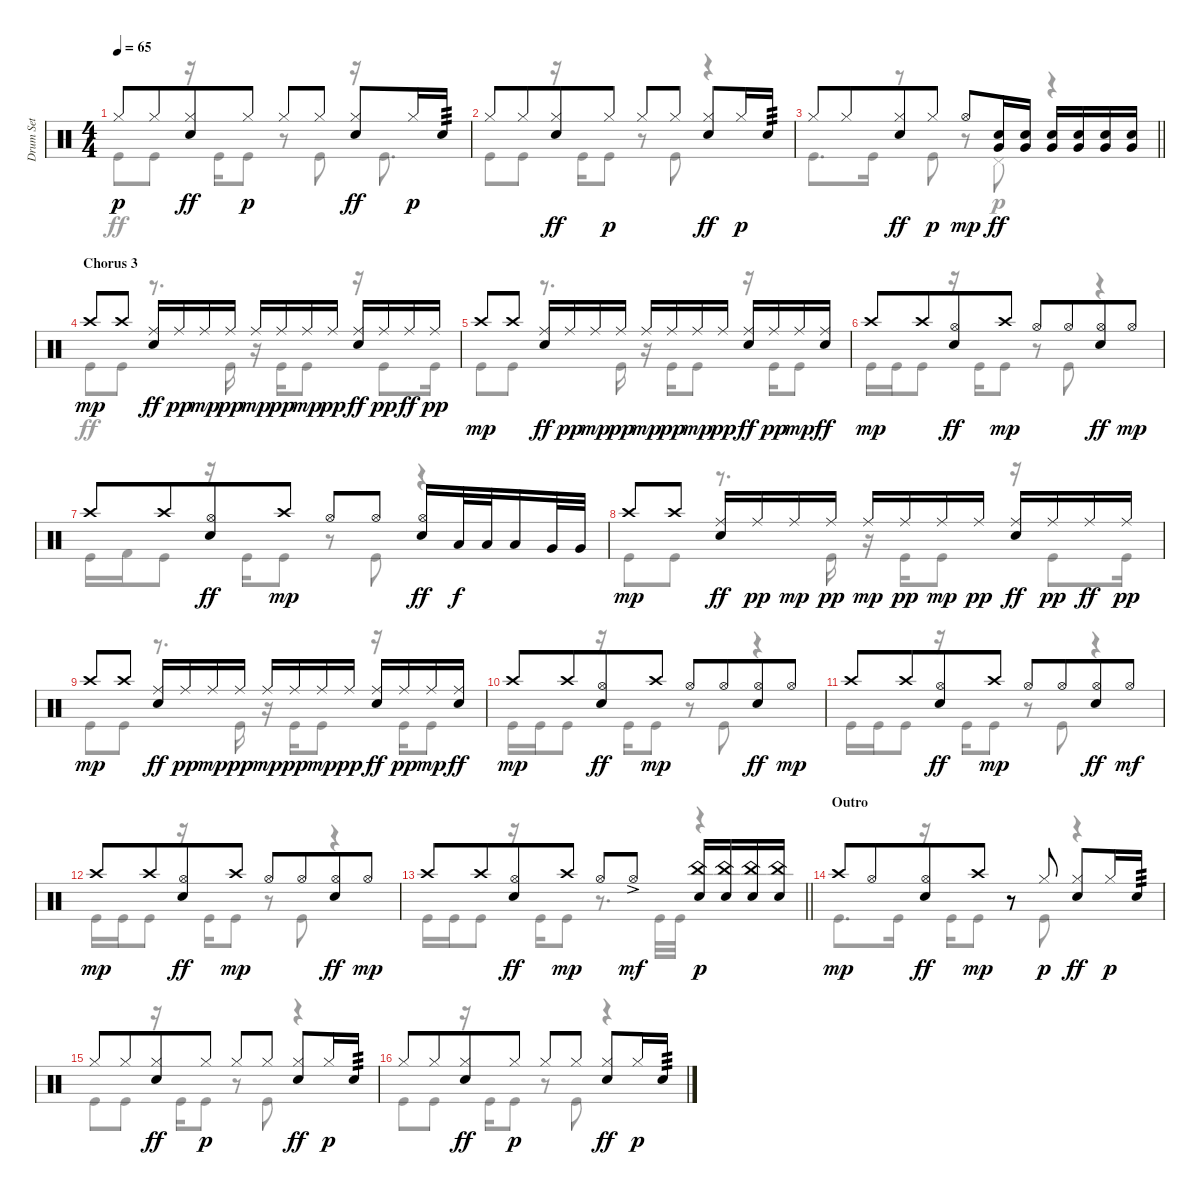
\track ("Drum Set" "Drum Set") {instrument percussion}
\staff {score}
\articulation defaults
\voice
\ts (4 4)
\tempo 65
\clef neutral
\ks c "Hi-Hat (closed)".8{dy p} "Hi-Hat (closed)".8{beam merge}
("Hi-Hat (closed)" "Electric Snare (hit)").8{dy ff} "Hi-Hat (closed)".8{dy p} "Hi-Hat (closed)".8 "Hi-Hat (closed)".8{beam split} ("Hi-Hat (closed)" "Electric Snare (hit)").8{dy ff} "Hi-Hat (closed)".16{dy p} "Electric Snare (hit)".16{tp 3} |
"Hi-Hat (closed)".8 "Hi-Hat (closed)".8{beam merge} ("Hi-Hat (closed)" "Electric Snare (hit)").8{dy ff} "Hi-Hat (closed)".8{dy p} "Hi-Hat (closed)".8 "Hi-Hat (closed)".8{beam split} ("Hi-Hat (closed)" "Electric Snare (hit)").8{dy ff} "Hi-Hat (closed)".16{dy p} "Electric Snare (hit)".16{tp 3} |
\barLineRight lightlight "Hi-Hat (closed)".8 "Hi-Hat (closed)".8{beam merge}
("Hi-Hat (closed)" "Electric Snare (hit)").8{dy ff} "Hi-Hat (closed)".8{dy p} "Hi-Hat (open)".8{dy mp} ("Electric Snare (hit)" "Very Low Tom (hit)").16{dy ff} ("Electric Snare (hit)" "Very Low Tom (hit)").16 ("Electric Snare (hit)" "Very Low Tom (hit)").16 ("Electric Snare (hit)" "Very Low Tom (hit)").16 ("Electric Snare (hit)" "Very Low Tom (hit)").16 ("Electric Snare (hit)" "Very Low Tom (hit)").16 |
\section ("" "Chorus 3")
"Crash high (hit)".8{dy mp} "Crash high (hit)".8 ("Ride (middle)" "Electric Snare (hit)").16{dy ff} "Ride (middle)".16{dy pp} "Ride (middle)".16{dy mp} "Ride (middle)".16{dy pp} "Ride (middle)".16{dy mp} "Ride (middle)".16{dy pp} "Ride (middle)".16{dy mp} "Ride (middle)".16{dy pp} ("Ride (middle)" "Electric Snare (hit)").16{dy ff} "Ride (middle)".16{dy pp} "Ride (middle)".16{dy ff} "Ride (middle)".16{dy pp} |
"Crash high (hit)".8{dy mp} "Crash high (hit)".8 ("Ride (middle)" "Electric Snare (hit)").16{dy ff} "Ride (middle)".16{dy pp} "Ride (middle)".16{dy mp} "Ride (middle)".16{dy pp} "Ride (middle)".16{dy mp} "Ride (middle)".16{dy pp} "Ride (middle)".16{dy mp} "Ride (middle)".16{dy pp} ("Ride (middle)" "Electric Snare (hit)").16{dy ff} "Ride (middle)".16{dy pp} "Ride (middle)".16{dy mp} ("Ride (middle)" "Electric Snare (hit)").16{dy ff} |
"Crash high (hit)".8{dy mp} "Crash high (hit)".8{beam merge} ("Hi-Hat (open)" "Electric Snare (hit)").8{dy ff} "Crash high (hit)".8{dy mp} "Hi-Hat (open)".8 "Hi-Hat (open)".8{beam merge} ("Hi-Hat (open)" "Electric Snare (hit)").8{dy ff} "Hi-Hat (open)".8{dy mp} |
"Crash high (hit)".8 "Crash high (hit)".8{beam merge} ("Hi-Hat (open)" "Electric Snare (hit)").8{dy ff} "Crash high (hit)".8{dy mp} "Hi-Hat (open)".8 "Hi-Hat (open)".8 ("Hi-Hat (open)" "Electric Snare (hit)").16{dy ff} "Low Tom (hit)".32{dy f} "Low Tom (hit)".32{beam splitsecondary} "Low Tom (hit)".16 "Very Low Tom (hit)".32 "Very Low Tom (hit)".32 |
"Crash high (hit)".8{dy mp} "Crash high (hit)".8 ("Ride (middle)" "Electric Snare (hit)").16{dy ff} "Ride (middle)".16{dy pp} "Ride (middle)".16{dy mp} "Ride (middle)".16{dy pp} "Ride (middle)".16{dy mp} "Ride (middle)".16{dy pp} "Ride (middle)".16{dy mp} "Ride (middle)".16{dy pp} ("Ride (middle)" "Electric Snare (hit)").16{dy ff} "Ride (middle)".16{dy pp} "Ride (middle)".16{dy ff} "Ride (middle)".16{dy pp} |
"Crash high (hit)".8{dy mp} "Crash high (hit)".8 ("Ride (middle)" "Electric Snare (hit)").16{dy ff} "Ride (middle)".16{dy pp} "Ride (middle)".16{dy mp} "Ride (middle)".16{dy pp} "Ride (middle)".16{dy mp} "Ride (middle)".16{dy pp} "Ride (middle)".16{dy mp} "Ride (middle)".16{dy pp} ("Ride (middle)" "Electric Snare (hit)").16{dy ff} "Ride (middle)".16{dy pp} "Ride (middle)".16{dy mp} ("Ride (middle)" "Electric Snare (hit)").16{dy ff} |
"Crash high (hit)".8{dy mp} "Crash high (hit)".8{beam merge} ("Hi-Hat (open)" "Electric Snare (hit)").8{dy ff} "Crash high (hit)".8{dy mp} "Hi-Hat (open)".8 "Hi-Hat (open)".8{beam merge} ("Hi-Hat (open)" "Electric Snare (hit)").8{dy ff} "Hi-Hat (open)".8{dy mp} |
"Crash high (hit)".8 "Crash high (hit)".8{beam merge} ("Hi-Hat (open)" "Electric Snare (hit)").8{dy ff} "Crash high (hit)".8{dy mp} "Hi-Hat (open)".8 "Hi-Hat (open)".8{beam merge} ("Hi-Hat (open)" "Electric Snare (hit)").8{dy ff} "Hi-Hat (open)".8{dy mf} |
"Crash high (hit)".8{dy mp} "Crash high (hit)".8{beam merge} ("Hi-Hat (open)" "Electric Snare (hit)").8{dy ff} "Crash high (hit)".8{dy mp} "Hi-Hat (open)".8 "Hi-Hat (open)".8{beam merge} ("Hi-Hat (open)" "Electric Snare (hit)").8{dy ff} "Hi-Hat (open)".8{dy mp} |
\barLineRight lightlight "Crash high (hit)".8 "Crash high (hit)".8{beam merge}
("Hi-Hat (open)" "Electric Snare (hit)").8{dy ff} "Crash high (hit)".8{dy mp} "Hi-Hat (open)".8 "Hi-Hat (open)"{ac}.8{dy mf} ("Electric Snare (hit)" "China (hit)").16{dy p} ("Electric Snare (hit)" "China (hit)").16 ("Electric Snare (hit)" "China (hit)").16 ("Electric Snare (hit)" "China (hit)").16 |
\section ("" "Outro")
"Crash high (hit)".8{dy mp} "Hi-Hat (open)".8{beam merge} ("Hi-Hat (open)" "Electric Snare (hit)").8{dy ff} "Crash high (hit)".8{dy mp} r.8 "Hi-Hat (closed)".8{dy p} ("Hi-Hat (closed)" "Electric Snare (hit)").8{dy ff} "Hi-Hat (closed)".16{dy p} "Electric Snare (hit)".16{tp 3} |
"Hi-Hat (closed)".8 "Hi-Hat (closed)".8{beam merge} ("Hi-Hat (closed)" "Electric Snare (hit)").8{dy ff} "Hi-Hat (closed)".8{dy p} "Hi-Hat (closed)".8 "Hi-Hat (closed)".8{beam split} ("Hi-Hat (closed)" "Electric Snare (hit)").8{dy ff} "Hi-Hat (closed)".16{dy p} "Electric Snare (hit)".16{tp 3} |
"Hi-Hat (closed)".8 "Hi-Hat (closed)".8{beam merge} ("Hi-Hat (closed)" "Electric Snare (hit)").8{dy ff} "Hi-Hat (closed)".8{dy p} "Hi-Hat (closed)".8 "Hi-Hat (closed)".8{beam split} ("Hi-Hat (closed)" "Electric Snare (hit)").8{dy ff} "Hi-Hat (closed)".16{dy p} "Electric Snare (hit)".16{tp 3}
\voice
\clef neutral
\ottava regular
\simile none
\ks c "Kick (hit)".8{dy ff} "Kick (hit)".8
r.16 "Kick (hit)".16 "Kick (hit)".8 r.8 "Kick (hit)".8 r.16 "Kick (hit)".8{d} |
"Kick (hit)".8 "Kick (hit)".8 r.16 "Kick (hit)".16 "Kick (hit)".8 r.8 "Kick (hit)".8 r.4 |
\barLineRight lightlight "Kick (hit)".8{d} "Kick (hit)".16
r.8 "Kick (hit)".8 r.8 "Pedal Hi-Hat (hit)".8{dy p} r.4 |
"Kick (hit)".8{dy ff} "Kick (hit)".8 r.8{d} "Kick (hit)".16 r.16 "Kick (hit)".16 "Kick (hit)".8 r.16 "Kick (hit)".8 "Kick (hit)".16 |
"Kick (hit)".8 "Kick (hit)".8 r.8{d} "Kick (hit)".16 r.16 "Kick (hit)".16 "Kick (hit)".8 r.16 "Kick (hit)".16 "Kick (hit)".8 |
"Kick (hit)".16 "Kick (hit)".16 "Kick (hit)".8 r.16 "Kick (hit)".16 "Kick (hit)".8 r.8 "Kick (hit)".8 r.4 |
"Kick (hit)".16 "Kick (hit) 2".16 "Kick (hit)".8 r.16 "Kick (hit)".16 "Kick (hit)".8 r.8 "Kick (hit)".8 r.4 |
"Kick (hit)".8 "Kick (hit)".8 r.8{d} "Kick (hit)".16 r.16 "Kick (hit)".16 "Kick (hit)".8 r.16 "Kick (hit)".8 "Kick (hit)".16 |
"Kick (hit)".8 "Kick (hit)".8 r.8{d} "Kick (hit)".16 r.16 "Kick (hit)".16 "Kick (hit)".8 r.16 "Kick (hit)".16 "Kick (hit)".8 |
"Kick (hit)".16 "Kick (hit)".16 "Kick (hit)".8 r.16 "Kick (hit)".16 "Kick (hit)".8 r.8 "Kick (hit)".8 r.4 |
"Kick (hit)".16 "Kick (hit)".16 "Kick (hit)".8 r.16 "Kick (hit)".16 "Kick (hit)".8 r.8 "Kick (hit)".8 r.4 |
"Kick (hit)".16 "Kick (hit)".16 "Kick (hit)".8 r.16 "Kick (hit)".16 "Kick (hit)".8 r.8 "Kick (hit)".8 r.4 |
\barLineRight lightlight "Kick (hit)".16 "Kick (hit)".16 "Kick (hit)".8
r.16 "Kick (hit)".16 "Kick (hit)".8 r.8{d} "Kick (hit)".32 "Kick (hit)".32 r.4 |
"Kick (hit)".8{d} "Kick (hit)".16 r.16 "Kick (hit)".16 "Kick (hit)".8 r.8 "Kick (hit)".8 r.4 |
"Kick (hit)".8 "Kick (hit)".8 r.16 "Kick (hit)".16 "Kick (hit)".8 r.8 "Kick (hit)".8 r.4 |
"Kick (hit)".8 "Kick (hit)".8 r.16 "Kick (hit)".16 "Kick (hit)".8 r.8 "Kick (hit)".8 r.4
